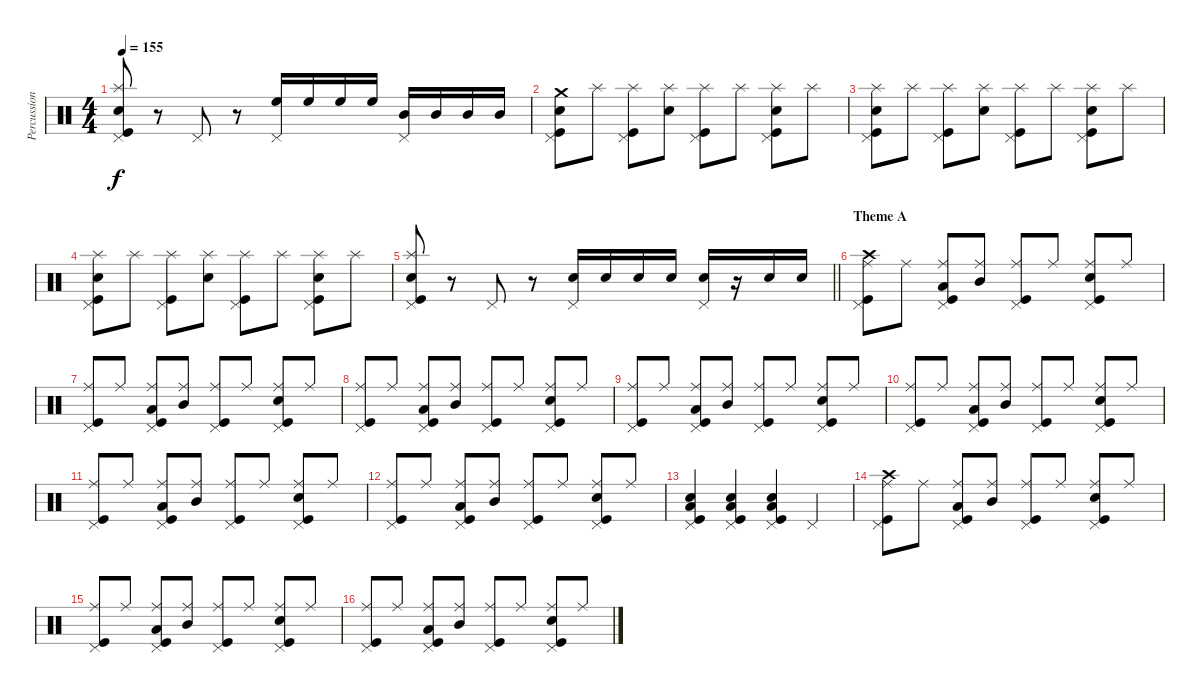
\track ("Percussion" "Percussion") {instrument percussion}
\staff {score}
\articulation defaults
\ts (4 4)
\tempo 155
\clef neutral
\ks c
("Pedal Hi-Hat (hit)" "Splash (hit)" "Electric Snare (hit)" "Kick (hit)").8{dy f} r.8 "Pedal Hi-Hat (hit)".8 r.8 ("Pedal Hi-Hat (hit)" "High Floor Tom (hit)").16 "High Floor Tom (hit)".16 "High Floor Tom (hit)".16 "High Floor Tom (hit)".16 ("Pedal Hi-Hat (hit)" "Mid Tom (hit)").16 "Mid Tom (hit)".16 "Mid Tom (hit)".16 "Mid Tom (hit)".16 |
("Pedal Hi-Hat (hit)" "Crash medium (hit)" "Electric Snare (hit)" "Kick (hit)").8 "Splash (hit)".8 ("Pedal Hi-Hat (hit)" "Splash (hit)" "Kick (hit)").8 ("Splash (hit)" "Electric Snare (hit)").8 ("Pedal Hi-Hat (hit)" "Splash (hit)" "Kick (hit)").8 "Splash (hit)".8 ("Pedal Hi-Hat (hit)" "Splash (hit)" "Electric Snare (hit)" "Kick (hit)").8 "Splash (hit)".8 |
("Pedal Hi-Hat (hit)" "Splash (hit)" "Electric Snare (hit)" "Kick (hit)").8 "Splash (hit)".8 ("Pedal Hi-Hat (hit)" "Splash (hit)" "Kick (hit)").8 ("Splash (hit)" "Electric Snare (hit)").8 ("Pedal Hi-Hat (hit)" "Splash (hit)" "Kick (hit)").8 "Splash (hit)".8 ("Pedal Hi-Hat (hit)" "Splash (hit)" "Electric Snare (hit)" "Kick (hit)").8 "Splash (hit)".8 |
("Pedal Hi-Hat (hit)" "Splash (hit)" "Electric Snare (hit)" "Kick (hit)").8 "Splash (hit)".8 ("Pedal Hi-Hat (hit)" "Splash (hit)" "Kick (hit)").8 ("Splash (hit)" "Electric Snare (hit)").8 ("Pedal Hi-Hat (hit)" "Splash (hit)" "Kick (hit)").8 "Splash (hit)".8 ("Pedal Hi-Hat (hit)" "Splash (hit)" "Electric Snare (hit)" "Kick (hit)").8 "Splash (hit)".8 |
\barLineRight lightlight
("Pedal Hi-Hat (hit)" "Splash (hit)" "Electric Snare (hit)" "Kick (hit)").8 r.8 "Pedal Hi-Hat (hit)".8 r.8 ("Pedal Hi-Hat (hit)" "Electric Snare (hit)").16 "Electric Snare (hit)".16 "Electric Snare (hit)".16 "Electric Snare (hit)".16 ("Pedal Hi-Hat (hit)" "Electric Snare (hit)").16 r.16 "Electric Snare (hit)".16 "Electric Snare (hit)".16 |
\section ("" "Theme A")
("Pedal Hi-Hat (hit)" "Ride (middle)" "Crash high (hit)" "Kick (hit)").8 "Ride (middle)".8 ("Pedal Hi-Hat (hit)" "Ride (middle)" "Low Tom (hit)" "Kick (hit)").8 ("Ride (middle)" "Mid Tom (hit)").8 ("Pedal Hi-Hat (hit)" "Ride (middle)" "Kick (hit)").8 "Ride (middle)".8 ("Pedal Hi-Hat (hit)" "Ride (middle)" "Electric Snare (hit)" "Kick (hit)").8 "Ride (middle)".8 |
("Pedal Hi-Hat (hit)" "Ride (middle)" "Kick (hit)").8 "Ride (middle)".8 ("Pedal Hi-Hat (hit)" "Ride (middle)" "Low Tom (hit)" "Kick (hit)").8 ("Ride (middle)" "Mid Tom (hit)").8 ("Pedal Hi-Hat (hit)" "Ride (middle)" "Kick (hit)").8 "Ride (middle)".8 ("Pedal Hi-Hat (hit)" "Ride (middle)" "Electric Snare (hit)" "Kick (hit)").8 "Ride (middle)".8 |
("Pedal Hi-Hat (hit)" "Ride (middle)" "Kick (hit)").8 "Ride (middle)".8 ("Pedal Hi-Hat (hit)" "Ride (middle)" "Low Tom (hit)" "Kick (hit)").8 ("Ride (middle)" "Mid Tom (hit)").8 ("Pedal Hi-Hat (hit)" "Ride (middle)" "Kick (hit)").8 "Ride (middle)".8 ("Pedal Hi-Hat (hit)" "Ride (middle)" "Electric Snare (hit)" "Kick (hit)").8 "Ride (middle)".8 |
("Pedal Hi-Hat (hit)" "Ride (middle)" "Kick (hit)").8 "Ride (middle)".8 ("Pedal Hi-Hat (hit)" "Ride (middle)" "Low Tom (hit)" "Kick (hit)").8 ("Ride (middle)" "Mid Tom (hit)").8 ("Pedal Hi-Hat (hit)" "Ride (middle)" "Kick (hit)").8 "Ride (middle)".8 ("Pedal Hi-Hat (hit)" "Ride (middle)" "Electric Snare (hit)" "Kick (hit)").8 "Ride (middle)".8 |
("Pedal Hi-Hat (hit)" "Ride (middle)" "Kick (hit)").8 "Ride (middle)".8 ("Pedal Hi-Hat (hit)" "Ride (middle)" "Low Tom (hit)" "Kick (hit)").8 ("Ride (middle)" "Mid Tom (hit)").8 ("Pedal Hi-Hat (hit)" "Ride (middle)" "Kick (hit)").8 "Ride (middle)".8 ("Pedal Hi-Hat (hit)" "Ride (middle)" "Electric Snare (hit)" "Kick (hit)").8 "Ride (middle)".8 |
("Pedal Hi-Hat (hit)" "Ride (middle)" "Kick (hit)").8 "Ride (middle)".8 ("Pedal Hi-Hat (hit)" "Ride (middle)" "Low Tom (hit)" "Kick (hit)").8 ("Ride (middle)" "Mid Tom (hit)").8 ("Pedal Hi-Hat (hit)" "Ride (middle)" "Kick (hit)").8 "Ride (middle)".8 ("Pedal Hi-Hat (hit)" "Ride (middle)" "Electric Snare (hit)" "Kick (hit)").8 "Ride (middle)".8 |
("Pedal Hi-Hat (hit)" "Ride (middle)" "Kick (hit)").8 "Ride (middle)".8 ("Pedal Hi-Hat (hit)" "Ride (middle)" "Low Tom (hit)" "Kick (hit)").8 ("Ride (middle)" "Mid Tom (hit)").8 ("Pedal Hi-Hat (hit)" "Ride (middle)" "Kick (hit)").8 "Ride (middle)".8 ("Pedal Hi-Hat (hit)" "Ride (middle)" "Electric Snare (hit)" "Kick (hit)").8 "Ride (middle)".8 |
("Pedal Hi-Hat (hit)" "Electric Snare (hit)" "Low Tom (hit)" "Kick (hit)").4 ("Pedal Hi-Hat (hit)" "Electric Snare (hit)" "Low Tom (hit)" "Kick (hit)").4 ("Pedal Hi-Hat (hit)" "Electric Snare (hit)" "Low Tom (hit)" "Kick (hit)").4 "Pedal Hi-Hat (hit)".4 |
("Pedal Hi-Hat (hit)" "Ride (middle)" "Crash high (hit)" "Kick (hit)").8 "Ride (middle)".8 ("Pedal Hi-Hat (hit)" "Ride (middle)" "Low Tom (hit)" "Kick (hit)").8 ("Ride (middle)" "Mid Tom (hit)").8 ("Pedal Hi-Hat (hit)" "Ride (middle)" "Kick (hit)").8 "Ride (middle)".8 ("Pedal Hi-Hat (hit)" "Ride (middle)" "Electric Snare (hit)" "Kick (hit)").8 "Ride (middle)".8 |
("Pedal Hi-Hat (hit)" "Ride (middle)" "Kick (hit)").8 "Ride (middle)".8 ("Pedal Hi-Hat (hit)" "Ride (middle)" "Low Tom (hit)" "Kick (hit)").8 ("Ride (middle)" "Mid Tom (hit)").8 ("Pedal Hi-Hat (hit)" "Ride (middle)" "Kick (hit)").8 "Ride (middle)".8 ("Pedal Hi-Hat (hit)" "Ride (middle)" "Electric Snare (hit)" "Kick (hit)").8 "Ride (middle)".8 |
("Pedal Hi-Hat (hit)" "Ride (middle)" "Kick (hit)").8 "Ride (middle)".8 ("Pedal Hi-Hat (hit)" "Ride (middle)" "Low Tom (hit)" "Kick (hit)").8 ("Ride (middle)" "Mid Tom (hit)").8 ("Pedal Hi-Hat (hit)" "Ride (middle)" "Kick (hit)").8 "Ride (middle)".8 ("Pedal Hi-Hat (hit)" "Ride (middle)" "Electric Snare (hit)" "Kick (hit)").8 "Ride (middle)".8
